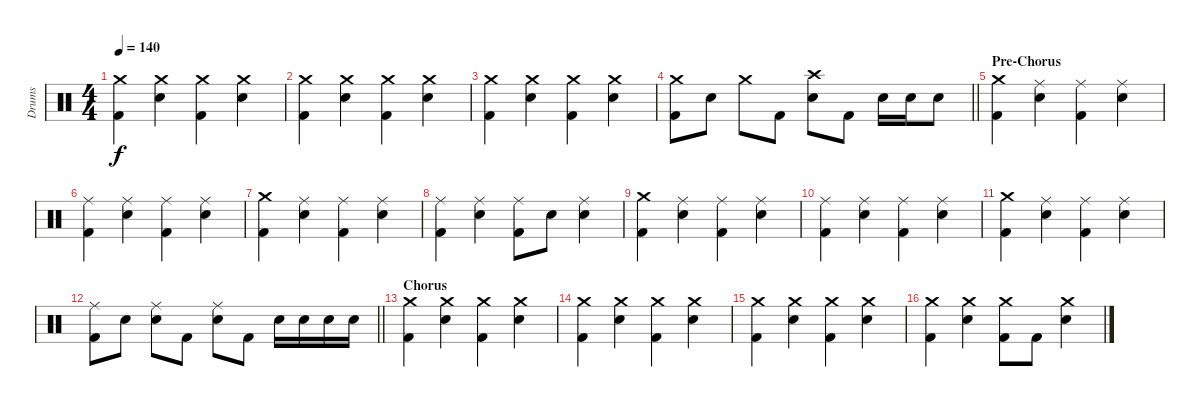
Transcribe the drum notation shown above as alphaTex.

\track ("Drums" "Drums") {instrument percussion}
\staff {score}
\articulation defaults
\ts (4 4)
\tempo 140
\clef neutral
\ks c
("Crash medium (hit)" "Kick (hit) 2").4{dy f} ("Crash medium (hit)" "Snare (hit) 2").4 ("Crash medium (hit)" "Kick (hit) 2").4 ("Crash medium (hit)" "Snare (hit) 2").4 |
("Crash medium (hit)" "Kick (hit) 2").4 ("Crash medium (hit)" "Snare (hit) 2").4 ("Crash medium (hit)" "Kick (hit) 2").4 ("Crash medium (hit)" "Snare (hit) 2").4 |
("Crash medium (hit)" "Kick (hit) 2").4 ("Crash medium (hit)" "Snare (hit) 2").4 ("Crash medium (hit)" "Kick (hit) 2").4 ("Crash medium (hit)" "Snare (hit) 2").4 |
\barLineRight lightlight
("Crash medium (hit)" "Kick (hit) 2").8 "Snare (hit) 2".8 "Crash medium (hit)".8 "Kick (hit) 2".8 ("Crash high (hit)" "Snare (hit) 2").8 "Kick (hit) 2".8 "Snare (hit) 2".16 "Snare (hit) 2".16 "Snare (hit) 2".8 |
\section ("" "Pre-Chorus")
("Crash medium (hit)" "Kick (hit) 2").4 ("Ride (middle)" "Snare (hit) 2").4 ("Ride (middle)" "Kick (hit) 2").4 ("Ride (middle)" "Snare (hit) 2").4 |
("Ride (middle)" "Kick (hit) 2").4 ("Ride (middle)" "Snare (hit) 2").4 ("Ride (middle)" "Kick (hit) 2").4 ("Ride (middle)" "Snare (hit) 2").4 |
("Crash medium (hit)" "Kick (hit) 2").4 ("Ride (middle)" "Snare (hit) 2").4 ("Ride (middle)" "Kick (hit) 2").4 ("Ride (middle)" "Snare (hit) 2").4 |
("Ride (middle)" "Kick (hit) 2").4 ("Ride (middle)" "Snare (hit) 2").4 ("Ride (middle)" "Kick (hit) 2").8 "Snare (hit) 2".8 ("Ride (middle)" "Snare (hit) 2").4 |
("Crash medium (hit)" "Kick (hit) 2").4 ("Ride (middle)" "Snare (hit) 2").4 ("Ride (middle)" "Kick (hit) 2").4 ("Ride (middle)" "Snare (hit) 2").4 |
("Ride (middle)" "Kick (hit) 2").4 ("Ride (middle)" "Snare (hit) 2").4 ("Ride (middle)" "Kick (hit) 2").4 ("Ride (middle)" "Snare (hit) 2").4 |
("Crash medium (hit)" "Kick (hit) 2").4 ("Ride (middle)" "Snare (hit) 2").4 ("Ride (middle)" "Kick (hit) 2").4 ("Ride (middle)" "Snare (hit) 2").4 |
\barLineRight lightlight
("Ride (middle)" "Kick (hit) 2").8 "Snare (hit) 2".8 ("Ride (middle)" "Snare (hit) 2").8 "Kick (hit) 2".8 ("Ride (middle)" "Snare (hit) 2").8 "Kick (hit) 2".8 "Snare (hit) 2".16 "Snare (hit) 2".16 "Snare (hit) 2".16 "Snare (hit) 2".16 |
\section ("" "Chorus")
("Crash medium (hit)" "Kick (hit) 2").4 ("Crash medium (hit)" "Snare (hit) 2").4 ("Crash medium (hit)" "Kick (hit) 2").4 ("Crash medium (hit)" "Snare (hit) 2").4 |
("Crash medium (hit)" "Kick (hit) 2").4 ("Crash medium (hit)" "Snare (hit) 2").4 ("Crash medium (hit)" "Kick (hit) 2").4 ("Crash medium (hit)" "Snare (hit) 2").4 |
("Crash medium (hit)" "Kick (hit) 2").4 ("Crash medium (hit)" "Snare (hit) 2").4 ("Crash medium (hit)" "Kick (hit) 2").4 ("Crash medium (hit)" "Snare (hit) 2").4 |
("Crash medium (hit)" "Kick (hit) 2").4 ("Crash medium (hit)" "Snare (hit) 2").4 ("Crash medium (hit)" "Kick (hit) 2").8 "Kick (hit) 2".8 ("Crash medium (hit)" "Snare (hit) 2").4
